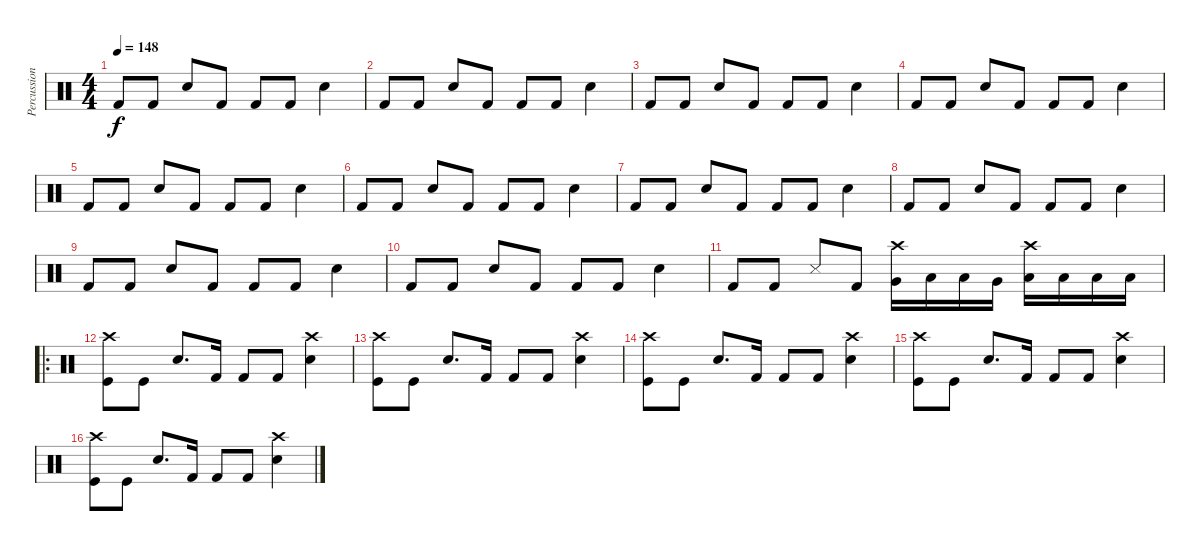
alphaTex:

\track ("Percussion" "Percussion") {instrument percussion}
\staff {score}
\articulation defaults
\ts (4 4)
\tempo 148
\clef neutral
\ks c "Kick (hit) 2".8{dy f} "Kick (hit) 2".8 "Snare (hit) 2".8 "Kick (hit) 2".8 "Kick (hit) 2".8 "Kick (hit) 2".8 "Snare (hit) 2".4
|
"Kick (hit) 2".8 "Kick (hit) 2".8 "Snare (hit) 2".8 "Kick (hit) 2".8 "Kick (hit) 2".8 "Kick (hit) 2".8 "Snare (hit) 2".4 |
"Kick (hit) 2".8 "Kick (hit) 2".8 "Snare (hit) 2".8 "Kick (hit) 2".8 "Kick (hit) 2".8 "Kick (hit) 2".8 "Snare (hit) 2".4 |
"Kick (hit) 2".8 "Kick (hit) 2".8 "Snare (hit) 2".8 "Kick (hit) 2".8 "Kick (hit) 2".8 "Kick (hit) 2".8 "Snare (hit) 2".4 |
"Kick (hit) 2".8 "Kick (hit) 2".8 "Snare (hit) 2".8 "Kick (hit) 2".8 "Kick (hit) 2".8 "Kick (hit) 2".8 "Snare (hit) 2".4 |
"Kick (hit) 2".8 "Kick (hit) 2".8 "Snare (hit) 2".8 "Kick (hit) 2".8 "Kick (hit) 2".8 "Kick (hit) 2".8 "Snare (hit) 2".4 |
"Kick (hit) 2".8 "Kick (hit) 2".8 "Snare (hit) 2".8 "Kick (hit) 2".8 "Kick (hit) 2".8 "Kick (hit) 2".8 "Snare (hit) 2".4 |
"Kick (hit) 2".8 "Kick (hit) 2".8 "Snare (hit) 2".8 "Kick (hit) 2".8 "Kick (hit) 2".8 "Kick (hit) 2".8 "Snare (hit) 2".4 |
"Kick (hit) 2".8 "Kick (hit) 2".8 "Snare (hit) 2".8 "Kick (hit) 2".8 "Kick (hit) 2".8 "Kick (hit) 2".8 "Snare (hit) 2".4 |
"Kick (hit) 2".8 "Kick (hit) 2".8 "Snare (hit) 2".8 "Kick (hit) 2".8 "Kick (hit) 2".8 "Kick (hit) 2".8 "Snare (hit) 2".4 |
"Kick (hit) 2".8 "Kick (hit) 2".8 "Snare (side stick) 3".8 "Kick (hit) 2".8 ("Crash high (hit)" "Very Low Tom (hit)").16 "Low Tom (hit)".16 "Low Floor Tom (hit)".16 "Very Low Tom (hit)".16 ("Crash high (hit)" "Low Tom (hit)").16 "Low Floor Tom (hit)".16 "Low Floor Tom (hit)".16 "Low Floor Tom (hit)".16 |
\ro
("Crash high (hit)" "Kick (hit)").8 "Kick (hit)".8 "Snare (hit) 2".8{d} "Kick (hit) 2".16 "Kick (hit) 2".8 "Kick (hit) 2".8 ("Crash high (hit)" "Snare (hit) 2").4 |
("Crash high (hit)" "Kick (hit)").8 "Kick (hit)".8 "Snare (hit) 2".8{d} "Kick (hit) 2".16 "Kick (hit) 2".8 "Kick (hit) 2".8 ("Crash high (hit)" "Snare (hit) 2").4 |
("Crash high (hit)" "Kick (hit)").8 "Kick (hit)".8 "Snare (hit) 2".8{d} "Kick (hit) 2".16 "Kick (hit) 2".8 "Kick (hit) 2".8 ("Crash high (hit)" "Snare (hit) 2").4 |
("Crash high (hit)" "Kick (hit)").8 "Kick (hit)".8 "Snare (hit) 2".8{d} "Kick (hit) 2".16 "Kick (hit) 2".8 "Kick (hit) 2".8 ("Crash high (hit)" "Snare (hit) 2").4 |
("Crash high (hit)" "Kick (hit)").8 "Kick (hit)".8 "Snare (hit) 2".8{d} "Kick (hit) 2".16 "Kick (hit) 2".8 "Kick (hit) 2".8 ("Crash high (hit)" "Snare (hit) 2").4
